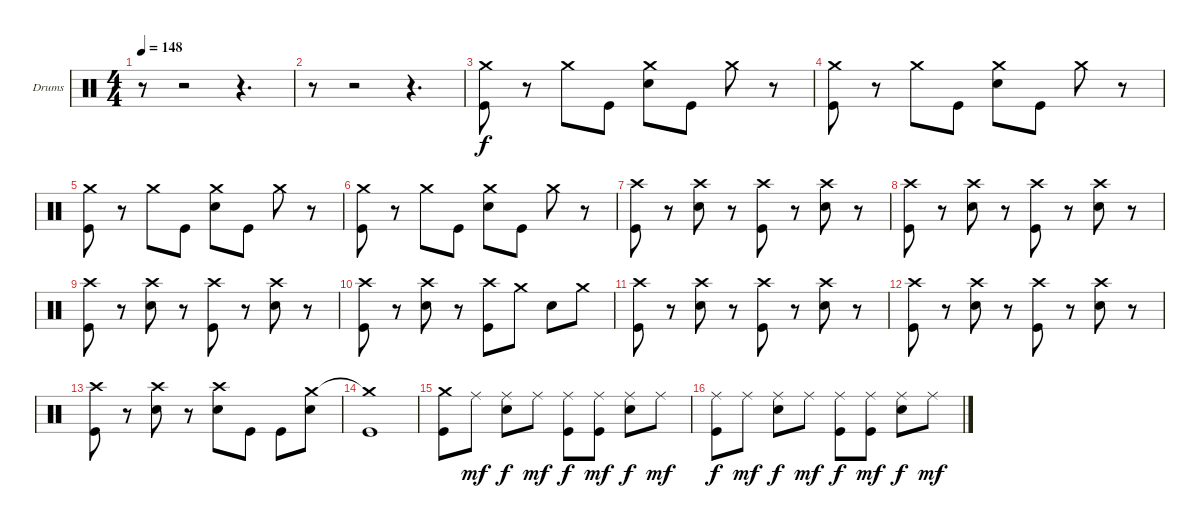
\defaultSystemsLayout 4
\bracketExtendMode groupsimilarinstruments
\firstSystemTrackNameOrientation horizontal
\otherSystemsTrackNameOrientation horizontal
\track ("Drumkit" "Drums") {instrument percussion}
\staff {score}
\articulation defaults
\ts (4 4)
\tempo 148
\clef neutral
\scale
0.333333
\ks c
r.8{dy f} r.2 r.4{d} |
\scale
0.333333 r.8 r.2 r.4{d} |
\scale
0.333333 ("Crash medium (hit)" "Kick (hit)").8 r.8 "Crash medium (hit)".8 "Kick (hit)".8 ("Crash medium (hit)" "Snare (hit) 2").8 "Kick (hit)".8 "Crash medium (hit)".8 r.8 |
\scale
0.333333 ("Crash medium (hit)" "Kick (hit)").8 r.8 "Crash medium (hit)".8 "Kick (hit)".8 ("Crash medium (hit)" "Snare (hit) 2").8 "Kick (hit)".8 "Crash medium (hit)".8 r.8 |
\scale
0.333333 ("Crash medium (hit)" "Kick (hit)").8 r.8 "Crash medium (hit)".8 "Kick (hit)".8 ("Crash medium (hit)" "Snare (hit) 2").8 "Kick (hit)".8 "Crash medium (hit)".8 r.8 |
\scale
0.333333 ("Crash medium (hit)" "Kick (hit)").8 r.8 "Crash medium (hit)".8 "Kick (hit)".8 ("Crash medium (hit)" "Snare (hit) 2").8 "Kick (hit)".8 "Crash medium (hit)".8 r.8 |
\scale
0.333333 ("Crash high (hit)" "Kick (hit)").8 r.8 ("Crash high (hit)" "Snare (hit) 2").8 r.8 ("Crash high (hit)" "Kick (hit)").8 r.8 ("Crash high (hit)" "Snare (hit) 2").8 r.8 |
\scale
0.333333 ("Crash high (hit)" "Kick (hit)").8 r.8 ("Crash high (hit)" "Snare (hit) 2").8 r.8 ("Crash high (hit)" "Kick (hit)").8 r.8 ("Crash high (hit)" "Snare (hit) 2").8 r.8 |
\scale
0.333333 ("Crash high (hit)" "Kick (hit)").8 r.8 ("Crash high (hit)" "Snare (hit) 2").8 r.8 ("Crash high (hit)" "Kick (hit)").8 r.8 ("Crash high (hit)" "Snare (hit) 2").8 r.8 |
\scale
0.333333 ("Crash high (hit)" "Kick (hit)").8 r.8 ("Crash high (hit)" "Snare (hit) 2").8 r.8 ("Crash high (hit)" "Kick (hit)").8 "Crash medium (hit)".8 "Snare (hit) 2".8 "Crash medium (hit)".8 |
\scale
0.333333 ("Crash high (hit)" "Kick (hit)").8 r.8 ("Crash high (hit)" "Snare (hit) 2").8 r.8 ("Crash high (hit)" "Kick (hit)").8 r.8 ("Crash high (hit)" "Snare (hit) 2").8 r.8 |
\scale
0.333333 ("Crash high (hit)" "Kick (hit)").8 r.8 ("Crash high (hit)" "Snare (hit) 2").8 r.8 ("Crash high (hit)" "Kick (hit)").8 r.8 ("Crash high (hit)" "Snare (hit) 2").8 r.8 |
\scale
0.333333 ("Crash high (hit)" "Kick (hit)").8 r.8 ("Crash high (hit)" "Snare (hit) 2").8 r.8 ("Crash high (hit)" "Snare (hit) 2").8 "Kick (hit)".8 "Kick (hit)".8 ("Crash medium (hit)" "Snare (hit) 2").8 |
\scale
0.333333 ("Crash medium (hit)"{t} "Kick (hit)").1 |
\scale
0.333333 ("Crash medium (hit)" "Kick (hit)").8 "Ride (middle)".8{dy mf} ("Ride (middle)" "Snare (hit) 2").8{dy f} "Ride (middle)".8{dy mf} ("Ride (middle)" "Kick (hit)").8{dy f} ("Ride (middle)" "Kick (hit)").8{dy mf} ("Ride (middle)" "Snare (hit) 2").8{dy f} "Ride (middle)".8{dy mf} |
\scale
0.333333 ("Ride (middle)" "Kick (hit)").8{dy f} "Ride (middle)".8{dy mf} ("Ride (middle)" "Snare (hit) 2").8{dy f} "Ride (middle)".8{dy mf} ("Ride (middle)" "Kick (hit)").8{dy f} ("Ride (middle)" "Kick (hit)").8{dy mf} ("Ride (middle)" "Snare (hit) 2").8{dy f} "Ride (middle)".8{dy mf}
